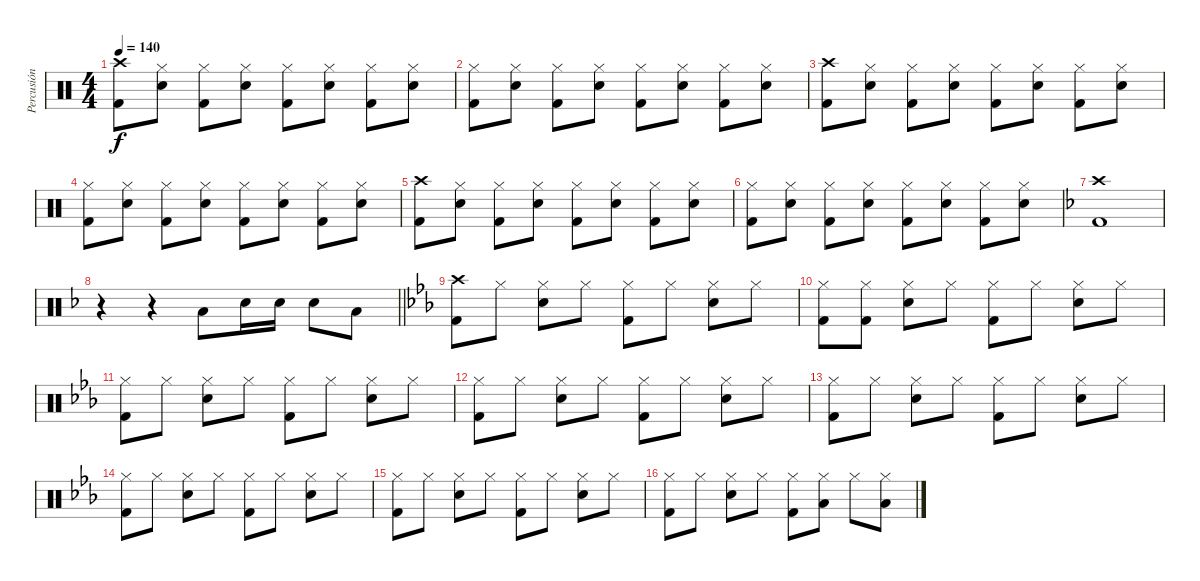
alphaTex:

\track ("Percusión" "Percusión") {instrument percussion}
\staff {score}
\articulation defaults
\ts (4 4)
\tempo 140
\clef neutral
\ks c
("Crash high (hit)" "Kick (hit) 2").8{dy f} ("Hi-Hat (closed)" "Snare (hit) 2").8 ("Hi-Hat (closed)" "Kick (hit) 2").8 ("Hi-Hat (closed)" "Snare (hit) 2").8 ("Hi-Hat (closed)" "Kick (hit) 2").8 ("Hi-Hat (closed)" "Snare (hit) 2").8 ("Hi-Hat (closed)" "Kick (hit) 2").8 ("Hi-Hat (closed)" "Snare (hit) 2").8 |
("Hi-Hat (closed)" "Kick (hit) 2").8 ("Hi-Hat (closed)" "Snare (hit) 2").8 ("Hi-Hat (closed)" "Kick (hit) 2").8 ("Hi-Hat (closed)" "Snare (hit) 2").8 ("Hi-Hat (closed)" "Kick (hit) 2").8 ("Hi-Hat (closed)" "Snare (hit) 2").8 ("Hi-Hat (closed)" "Kick (hit) 2").8 ("Hi-Hat (closed)" "Snare (hit) 2").8 |
("Crash high (hit)" "Kick (hit) 2").8 ("Hi-Hat (closed)" "Snare (hit) 2").8 ("Hi-Hat (closed)" "Kick (hit) 2").8 ("Hi-Hat (closed)" "Snare (hit) 2").8 ("Hi-Hat (closed)" "Kick (hit) 2").8 ("Hi-Hat (closed)" "Snare (hit) 2").8 ("Hi-Hat (closed)" "Kick (hit) 2").8 ("Hi-Hat (closed)" "Snare (hit) 2").8 |
("Hi-Hat (closed)" "Kick (hit) 2").8 ("Hi-Hat (closed)" "Snare (hit) 2").8 ("Hi-Hat (closed)" "Kick (hit) 2").8 ("Hi-Hat (closed)" "Snare (hit) 2").8 ("Hi-Hat (closed)" "Kick (hit) 2").8 ("Hi-Hat (closed)" "Snare (hit) 2").8 ("Hi-Hat (closed)" "Kick (hit) 2").8 ("Hi-Hat (closed)" "Snare (hit) 2").8 |
("Crash high (hit)" "Kick (hit) 2").8 ("Hi-Hat (closed)" "Snare (hit) 2").8 ("Hi-Hat (closed)" "Kick (hit) 2").8 ("Hi-Hat (closed)" "Snare (hit) 2").8 ("Hi-Hat (closed)" "Kick (hit) 2").8 ("Hi-Hat (closed)" "Snare (hit) 2").8 ("Hi-Hat (closed)" "Kick (hit) 2").8 ("Hi-Hat (closed)" "Snare (hit) 2").8 |
("Hi-Hat (closed)" "Kick (hit) 2").8 ("Hi-Hat (closed)" "Snare (hit) 2").8 ("Hi-Hat (closed)" "Kick (hit) 2").8 ("Hi-Hat (closed)" "Snare (hit) 2").8 ("Hi-Hat (closed)" "Kick (hit) 2").8 ("Hi-Hat (closed)" "Snare (hit) 2").8 ("Hi-Hat (closed)" "Kick (hit) 2").8 ("Hi-Hat (closed)" "Snare (hit) 2").8 |
\ks f
("Crash high (hit)" "Kick (hit) 2").1 |
\barLineRight lightlight
r.4 r.4 "Low Tom (hit)".8 "Snare (hit) 2".16 "Snare (hit) 2".16 "Snare (hit) 2".8 "Low Tom (hit)".8 |
\ks eb
("Crash high (hit)" "Kick (hit) 2").8 "Hi-Hat (closed)".8 ("Hi-Hat (closed)" "Snare (hit) 2").8 "Hi-Hat (closed)".8 ("Hi-Hat (closed)" "Kick (hit) 2").8 "Hi-Hat (closed)".8 ("Hi-Hat (closed)" "Snare (hit) 2").8 "Hi-Hat (closed)".8 |
("Hi-Hat (closed)" "Kick (hit) 2").8 ("Hi-Hat (closed)" "Kick (hit) 2").8 ("Hi-Hat (closed)" "Snare (hit) 2").8 "Hi-Hat (closed)".8 ("Hi-Hat (closed)" "Kick (hit) 2").8 "Hi-Hat (closed)".8 ("Hi-Hat (closed)" "Snare (hit) 2").8 "Hi-Hat (closed)".8 |
("Hi-Hat (closed)" "Kick (hit) 2").8 "Hi-Hat (closed)".8 ("Hi-Hat (closed)" "Snare (hit) 2").8 "Hi-Hat (closed)".8 ("Hi-Hat (closed)" "Kick (hit) 2").8 "Hi-Hat (closed)".8 ("Hi-Hat (closed)" "Snare (hit) 2").8 "Hi-Hat (closed)".8 |
("Hi-Hat (closed)" "Kick (hit) 2").8 "Hi-Hat (closed)".8 ("Hi-Hat (closed)" "Snare (hit) 2").8 "Hi-Hat (closed)".8 ("Hi-Hat (closed)" "Kick (hit) 2").8 "Hi-Hat (closed)".8 ("Hi-Hat (closed)" "Snare (hit) 2").8 "Hi-Hat (closed)".8 |
("Hi-Hat (closed)" "Kick (hit) 2").8 "Hi-Hat (closed)".8 ("Hi-Hat (closed)" "Snare (hit) 2").8 "Hi-Hat (closed)".8 ("Hi-Hat (closed)" "Kick (hit) 2").8 "Hi-Hat (closed)".8 ("Hi-Hat (closed)" "Snare (hit) 2").8 "Hi-Hat (closed)".8 |
("Hi-Hat (closed)" "Kick (hit) 2").8 "Hi-Hat (closed)".8 ("Hi-Hat (closed)" "Snare (hit) 2").8 "Hi-Hat (closed)".8 ("Hi-Hat (closed)" "Kick (hit) 2").8 "Hi-Hat (closed)".8 ("Hi-Hat (closed)" "Snare (hit) 2").8 "Hi-Hat (closed)".8 |
("Hi-Hat (closed)" "Kick (hit) 2").8 "Hi-Hat (closed)".8 ("Hi-Hat (closed)" "Snare (hit) 2").8 "Hi-Hat (closed)".8 ("Hi-Hat (closed)" "Kick (hit) 2").8 "Hi-Hat (closed)".8 ("Hi-Hat (closed)" "Snare (hit) 2").8 "Hi-Hat (closed)".8 |
("Hi-Hat (closed)" "Kick (hit) 2").8 "Hi-Hat (closed)".8 ("Hi-Hat (closed)" "Snare (hit) 2").8 "Hi-Hat (closed)".8 ("Hi-Hat (closed)" "Kick (hit) 2").8 ("Hi-Hat (closed)" "Low Tom (hit)").8 "Hi-Hat (closed)".8 ("Hi-Hat (closed)" "Low Tom (hit)").8
